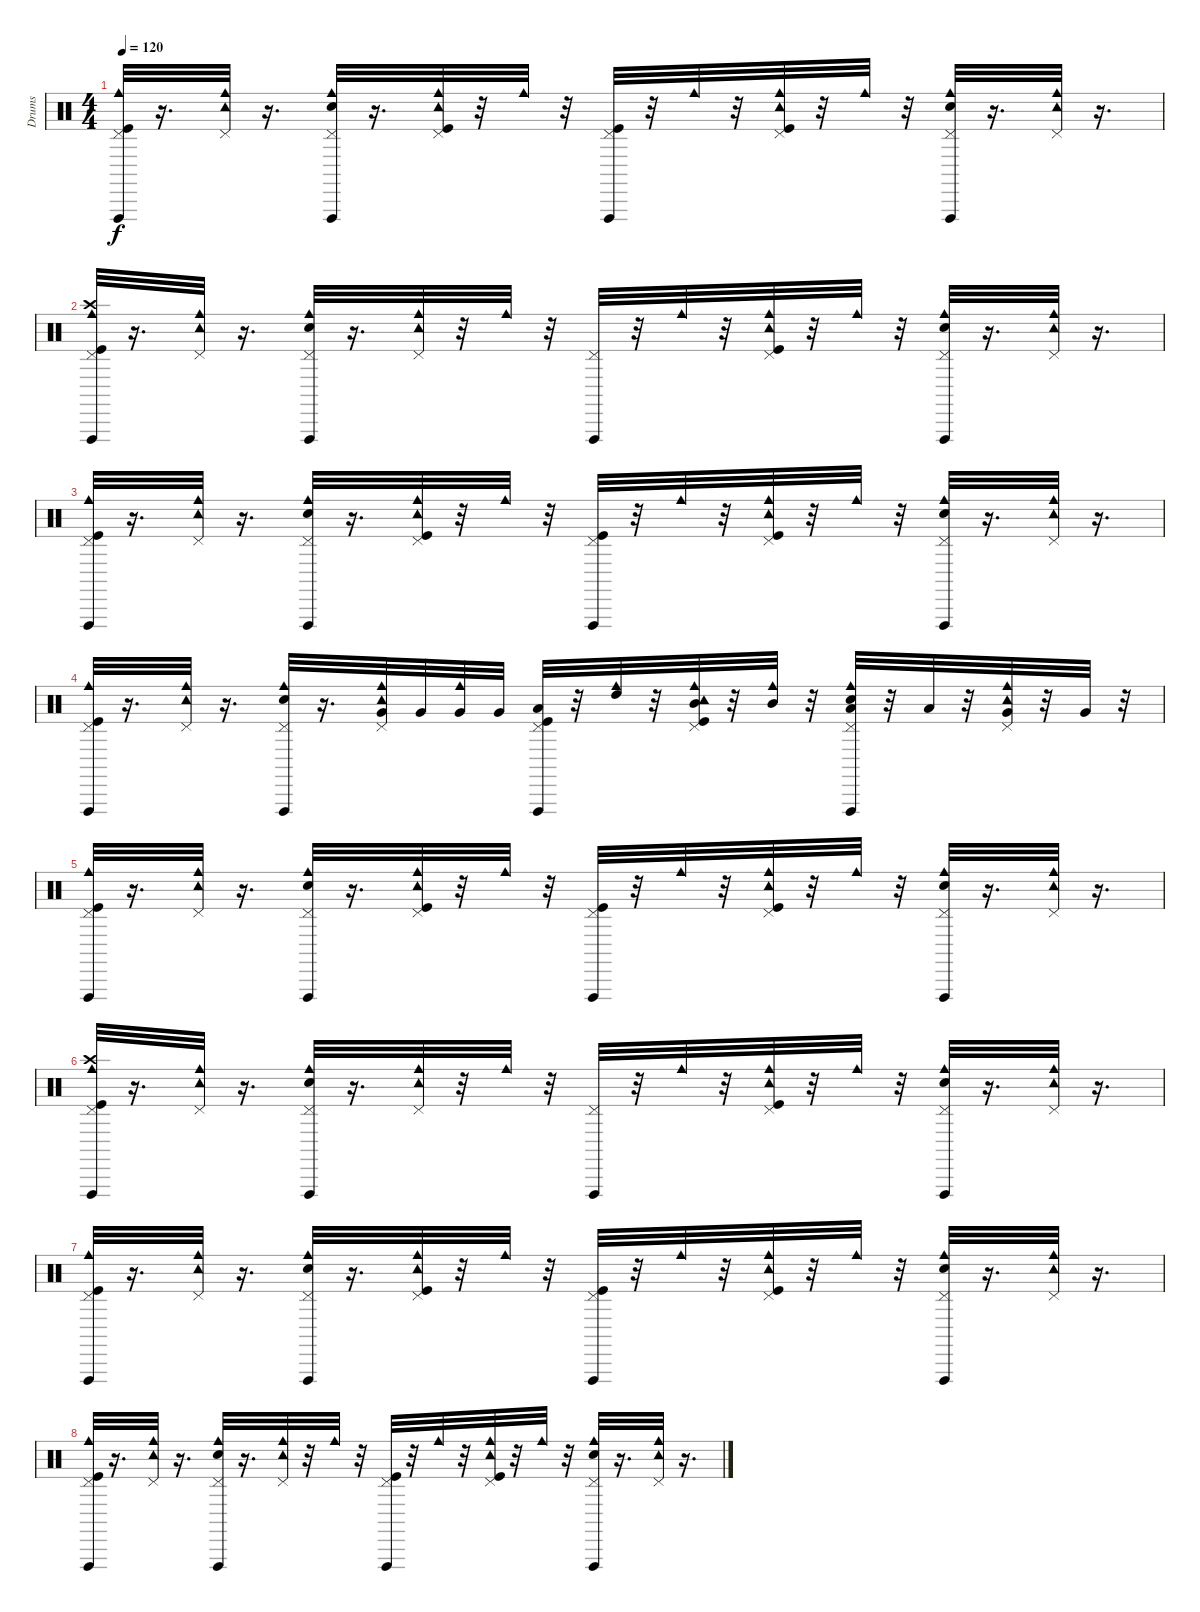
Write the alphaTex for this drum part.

\track ("Drums" "Drums") {instrument percussion}
\staff {score}
\articulation defaults
\ts (4 4)
\tempo 120
\clef neutral
\ks c
("Vibraslap (hit)" "Cowbell medium (hit)" "Pedal Hi-Hat (hit)" "Kick (hit)").32{dy f} r.16{d} ("Tambourine (hit)" "Pedal Hi-Hat (hit)" "Cowbell medium (hit)").32 r.16{d} ("Pedal Hi-Hat (hit)" "Snare (hit) 2" "Cowbell medium (hit)" "Vibraslap (hit)").32 r.16{d} ("Tambourine (hit)" "Pedal Hi-Hat (hit)" "Kick (hit)" "Cowbell medium (hit)").32 r.32 "Cowbell medium (hit)".32 r.32 ("Pedal Hi-Hat (hit)" "Vibraslap (hit)" "Kick (hit)").32 r.32 "Cowbell medium (hit)".32 r.32 ("Tambourine (hit)" "Pedal Hi-Hat (hit)" "Cowbell medium (hit)" "Kick (hit)").32 r.32 "Cowbell medium (hit)".32 r.32 ("Vibraslap (hit)" "Pedal Hi-Hat (hit)" "Cowbell medium (hit)" "Snare (hit) 2").32 r.16{d} ("Tambourine (hit)" "Cowbell medium (hit)" "Pedal Hi-Hat (hit)").32 r.16{d} |
("Vibraslap (hit)" "Cowbell medium (hit)" "Pedal Hi-Hat (hit)" "Crash high (hit)" "Kick (hit)").32 r.16{d} ("Pedal Hi-Hat (hit)" "Tambourine (hit)" "Cowbell medium (hit)").32 r.16{d} ("Snare (hit) 2" "Cowbell medium (hit)" "Vibraslap (hit)" "Pedal Hi-Hat (hit)").32 r.16{d} ("Cowbell medium (hit)" "Pedal Hi-Hat (hit)" "Tambourine (hit)").32 r.32 "Cowbell medium (hit)".32 r.32 ("Vibraslap (hit)" "Pedal Hi-Hat (hit)").32 r.32 "Cowbell medium (hit)".32 r.32 ("Tambourine (hit)" "Cowbell medium (hit)" "Pedal Hi-Hat (hit)" "Kick (hit)").32 r.32 "Cowbell medium (hit)".32 r.32 ("Cowbell medium (hit)" "Vibraslap (hit)" "Snare (hit) 2" "Pedal Hi-Hat (hit)").32 r.16{d} ("Pedal Hi-Hat (hit)" "Cowbell medium (hit)" "Tambourine (hit)").32 r.16{d} |
("Kick (hit)" "Cowbell medium (hit)" "Pedal Hi-Hat (hit)" "Vibraslap (hit)").32 r.16{d} ("Tambourine (hit)" "Pedal Hi-Hat (hit)" "Cowbell medium (hit)").32 r.16{d} ("Pedal Hi-Hat (hit)" "Snare (hit) 2" "Cowbell medium (hit)" "Vibraslap (hit)").32 r.16{d} ("Pedal Hi-Hat (hit)" "Tambourine (hit)" "Kick (hit)" "Cowbell medium (hit)").32 r.32 "Cowbell medium (hit)".32 r.32 ("Pedal Hi-Hat (hit)" "Kick (hit)" "Vibraslap (hit)").32 r.32 "Cowbell medium (hit)".32 r.32 ("Tambourine (hit)" "Pedal Hi-Hat (hit)" "Cowbell medium (hit)" "Kick (hit)").32 r.32 "Cowbell medium (hit)".32 r.32 ("Cowbell medium (hit)" "Pedal Hi-Hat (hit)" "Snare (hit) 2" "Vibraslap (hit)").32 r.16{d} ("Pedal Hi-Hat (hit)" "Tambourine (hit)" "Cowbell medium (hit)").32 r.16{d} |
("Cowbell medium (hit)" "Pedal Hi-Hat (hit)" "Kick (hit)" "Vibraslap (hit)").32 r.16{d} ("Pedal Hi-Hat (hit)" "Cowbell medium (hit)" "Tambourine (hit)").32 r.16{d} ("Pedal Hi-Hat (hit)" "Cowbell medium (hit)" "Snare (hit) 2" "Vibraslap (hit)").32 r.16{d} ("Cowbell medium (hit)" "Pedal Hi-Hat (hit)" "Tambourine (hit)" "Very Low Tom (hit)").32 "Very Low Tom (hit)".32 ("Cowbell medium (hit)" "Very Low Tom (hit)").32 "Very Low Tom (hit)".32 ("Low Tom (hit)" "Kick (hit)" "Pedal Hi-Hat (hit)" "Vibraslap (hit)").32 r.32 ("High Tom (hit)" "Cowbell medium (hit)").32 r.32 ("Tambourine (hit)" "Pedal Hi-Hat (hit)" "Mid Tom (hit)" "Kick (hit)" "Cowbell medium (hit)").32 r.32 ("Mid Tom (hit)" "Cowbell medium (hit)").32 r.32 ("Low Tom (hit)" "Snare (hit) 2" "Pedal Hi-Hat (hit)" "Cowbell medium (hit)" "Vibraslap (hit)").32 r.32 "Low Tom (hit)".32 r.32 ("Very Low Tom (hit)" "Pedal Hi-Hat (hit)" "Tambourine (hit)" "Cowbell medium (hit)").32 r.32 "Very Low Tom (hit)".32 r.32 |
("Vibraslap (hit)" "Cowbell medium (hit)" "Pedal Hi-Hat (hit)" "Kick (hit)").32 r.16{d} ("Tambourine (hit)" "Pedal Hi-Hat (hit)" "Cowbell medium (hit)").32 r.16{d} ("Pedal Hi-Hat (hit)" "Snare (hit) 2" "Cowbell medium (hit)" "Vibraslap (hit)").32 r.16{d} ("Tambourine (hit)" "Pedal Hi-Hat (hit)" "Kick (hit)" "Cowbell medium (hit)").32 r.32 "Cowbell medium (hit)".32 r.32 ("Pedal Hi-Hat (hit)" "Vibraslap (hit)" "Kick (hit)").32 r.32 "Cowbell medium (hit)".32 r.32 ("Tambourine (hit)" "Pedal Hi-Hat (hit)" "Cowbell medium (hit)" "Kick (hit)").32 r.32 "Cowbell medium (hit)".32 r.32 ("Vibraslap (hit)" "Pedal Hi-Hat (hit)" "Cowbell medium (hit)" "Snare (hit) 2").32 r.16{d} ("Tambourine (hit)" "Cowbell medium (hit)" "Pedal Hi-Hat (hit)").32 r.16{d} |
("Vibraslap (hit)" "Cowbell medium (hit)" "Pedal Hi-Hat (hit)" "Crash high (hit)" "Kick (hit)").32 r.16{d} ("Pedal Hi-Hat (hit)" "Tambourine (hit)" "Cowbell medium (hit)").32 r.16{d} ("Snare (hit) 2" "Cowbell medium (hit)" "Vibraslap (hit)" "Pedal Hi-Hat (hit)").32 r.16{d} ("Cowbell medium (hit)" "Pedal Hi-Hat (hit)" "Tambourine (hit)").32 r.32 "Cowbell medium (hit)".32 r.32 ("Vibraslap (hit)" "Pedal Hi-Hat (hit)").32 r.32 "Cowbell medium (hit)".32 r.32 ("Tambourine (hit)" "Cowbell medium (hit)" "Pedal Hi-Hat (hit)" "Kick (hit)").32 r.32 "Cowbell medium (hit)".32 r.32 ("Cowbell medium (hit)" "Vibraslap (hit)" "Snare (hit) 2" "Pedal Hi-Hat (hit)").32 r.16{d} ("Pedal Hi-Hat (hit)" "Cowbell medium (hit)" "Tambourine (hit)").32 r.16{d} |
("Kick (hit)" "Cowbell medium (hit)" "Pedal Hi-Hat (hit)" "Vibraslap (hit)").32 r.16{d} ("Tambourine (hit)" "Pedal Hi-Hat (hit)" "Cowbell medium (hit)").32 r.16{d} ("Pedal Hi-Hat (hit)" "Snare (hit) 2" "Cowbell medium (hit)" "Vibraslap (hit)").32 r.16{d} ("Pedal Hi-Hat (hit)" "Tambourine (hit)" "Kick (hit)" "Cowbell medium (hit)").32 r.32 "Cowbell medium (hit)".32 r.32 ("Pedal Hi-Hat (hit)" "Kick (hit)" "Vibraslap (hit)").32 r.32 "Cowbell medium (hit)".32 r.32 ("Tambourine (hit)" "Pedal Hi-Hat (hit)" "Cowbell medium (hit)" "Kick (hit)").32 r.32 "Cowbell medium (hit)".32 r.32 ("Cowbell medium (hit)" "Pedal Hi-Hat (hit)" "Snare (hit) 2" "Vibraslap (hit)").32 r.16{d} ("Pedal Hi-Hat (hit)" "Tambourine (hit)" "Cowbell medium (hit)").32 r.16{d} |
("Cowbell medium (hit)" "Pedal Hi-Hat (hit)" "Kick (hit)" "Vibraslap (hit)").32 r.16{d} ("Pedal Hi-Hat (hit)" "Cowbell medium (hit)" "Tambourine (hit)").32 r.16{d} ("Pedal Hi-Hat (hit)" "Cowbell medium (hit)" "Snare (hit) 2" "Vibraslap (hit)").32 r.16{d} ("Cowbell medium (hit)" "Pedal Hi-Hat (hit)" "Tambourine (hit)").32 r.32 "Cowbell medium (hit)".32 r.32 ("Kick (hit)" "Pedal Hi-Hat (hit)" "Vibraslap (hit)").32 r.32 "Cowbell medium (hit)".32 r.32 ("Tambourine (hit)" "Pedal Hi-Hat (hit)" "Kick (hit)" "Cowbell medium (hit)").32 r.32 "Cowbell medium (hit)".32 r.32 ("Snare (hit) 2" "Pedal Hi-Hat (hit)" "Cowbell medium (hit)" "Vibraslap (hit)").32 r.16{d} ("Pedal Hi-Hat (hit)" "Tambourine (hit)" "Cowbell medium (hit)").32 r.16{d}
